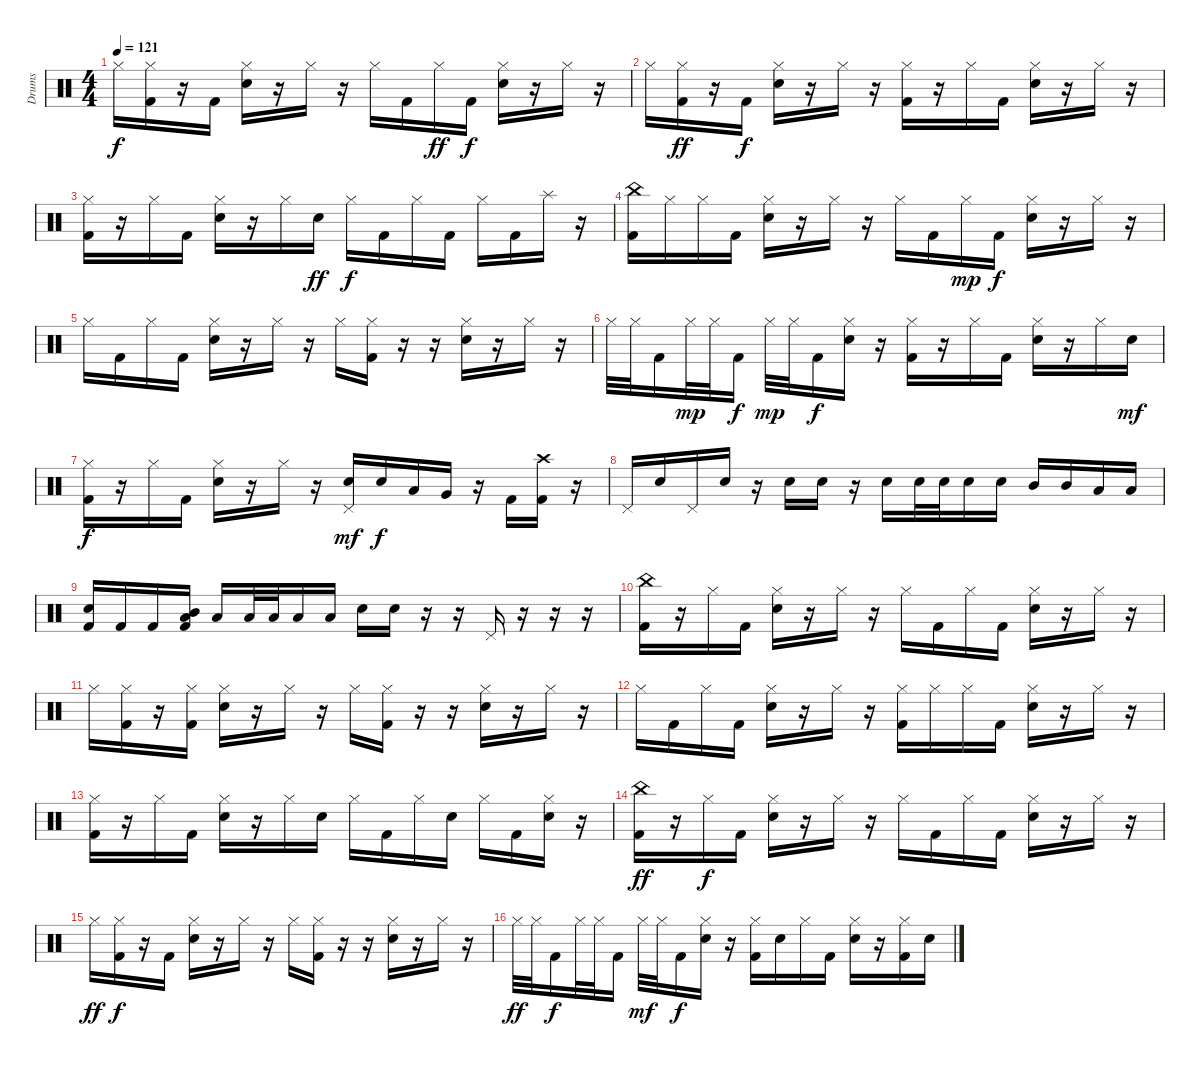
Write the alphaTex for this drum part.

\track ("Drums" "Drums") {instrument percussion}
\staff {score}
\articulation defaults
\ts (4 4)
\tempo 121
\clef neutral
\ks c "Hi-Hat (closed)".16{dy f}
("Hi-Hat (closed)" "Kick (hit) 2").16 r.16 "Kick (hit) 2".16 ("Hi-Hat (closed)" "Snare (hit) 2").16 r.16 "Hi-Hat (closed)".16 r.16 "Hi-Hat (closed)".16 "Kick (hit) 2".16 "Hi-Hat (closed)".16{dy ff} "Kick (hit) 2".16{dy f} ("Hi-Hat (closed)" "Snare (hit) 2").16 r.16 "Hi-Hat (closed)".16 r.16 |
"Hi-Hat (closed)".16 ("Hi-Hat (closed)" "Kick (hit) 2").16{dy ff} r.16 "Kick (hit) 2".16{dy f} ("Hi-Hat (closed)" "Snare (hit) 2").16 r.16 "Hi-Hat (closed)".16 r.16 ("Hi-Hat (closed)" "Kick (hit) 2").16 r.16 "Hi-Hat (closed)".16 "Kick (hit) 2".16 ("Hi-Hat (closed)" "Snare (hit) 2").16 r.16 "Hi-Hat (closed)".16 r.16 |
("Hi-Hat (closed)" "Kick (hit) 2").16 r.16 "Hi-Hat (closed)".16 "Kick (hit) 2".16 ("Hi-Hat (closed)" "Snare (hit) 2").16 r.16 "Hi-Hat (closed)".16 "Snare (hit) 2".16{dy ff} "Hi-Hat (closed)".16{dy f} "Kick (hit) 2".16 "Hi-Hat (closed)".16 "Kick (hit) 2".16 "Hi-Hat (closed)".16 "Kick (hit) 2".16 "Splash (hit)".16 r.16 |
("China (hit)" "Kick (hit) 2").16 "Hi-Hat (closed)".16 "Hi-Hat (closed)".16 "Kick (hit) 2".16 ("Hi-Hat (closed)" "Snare (hit) 2").16 r.16 "Hi-Hat (closed)".16 r.16 "Hi-Hat (closed)".16 "Kick (hit) 2".16 "Hi-Hat (closed)".16{dy mp} "Kick (hit) 2".16{dy f} ("Hi-Hat (closed)" "Snare (hit) 2").16 r.16 "Hi-Hat (closed)".16 r.16 |
"Hi-Hat (closed)".16 "Kick (hit) 2".16 "Hi-Hat (closed)".16 "Kick (hit) 2".16 ("Hi-Hat (closed)" "Snare (hit) 2").16 r.16 "Hi-Hat (closed)".16 r.16 "Hi-Hat (closed)".16 ("Hi-Hat (closed)" "Kick (hit) 2").16 r.16 r.16 ("Hi-Hat (closed)" "Snare (hit) 2").16 r.16 "Hi-Hat (closed)".16 r.16 |
"Hi-Hat (closed)".32 "Hi-Hat (closed)".32 "Kick (hit) 2".16 "Hi-Hat (closed)".32{dy mp} "Hi-Hat (closed)".32 "Kick (hit) 2".16{dy f} "Hi-Hat (closed)".32{dy mp} "Hi-Hat (closed)".32 "Kick (hit) 2".16{dy f} ("Hi-Hat (closed)" "Snare (hit) 2").16 r.16 ("Hi-Hat (closed)" "Kick (hit) 2").16 r.16 "Hi-Hat (closed)".16 "Kick (hit) 2".16 ("Hi-Hat (closed)" "Snare (hit) 2").16 r.16 "Hi-Hat (closed)".16 "Snare (hit) 2".16{dy mf} |
("Hi-Hat (closed)" "Kick (hit) 2").16{dy f} r.16 "Hi-Hat (closed)".16 "Kick (hit) 2".16 ("Hi-Hat (closed)" "Snare (hit) 2").16 r.16 "Hi-Hat (closed)".16 r.16 ("Pedal Hi-Hat (hit)" "Snare (hit) 2").16{dy mf} "Snare (hit) 2".16{dy f} "Low Tom (hit)".16 "Very Low Tom (hit)".16 r.16 "Kick (hit) 2".16 ("Crash high (hit)" "Kick (hit) 2").16 r.16 |
"Pedal Hi-Hat (hit)".16 "Snare (hit) 2".16 "Pedal Hi-Hat (hit)".16 "Snare (hit) 2".16 r.16 "Snare (hit) 2".16 "Snare (hit) 2".16 r.16 "Snare (hit) 2".16 "Snare (hit) 2".32 "Snare (hit) 2".32 "Snare (hit) 2".16 "Snare (hit) 2".16 "Mid Tom (hit)".16 "Mid Tom (hit)".16 "Low Tom (hit)".16 "Low Tom (hit)".16 |
("Snare (hit) 2" "Kick (hit) 2").16 "Kick (hit) 2".16 "Kick (hit) 2".16 ("Low Tom (hit)" "Mid Tom (hit)" "Kick (hit) 2").16 "Low Tom (hit)".16 "Low Tom (hit)".32 "Low Tom (hit)".32 "Low Tom (hit)".16 "Low Tom (hit)".16 "Snare (hit) 2".16 "Snare (hit) 2".16 r.16 r.16 "Pedal Hi-Hat (hit)".16 r.16 r.16 r.16 |
("China (hit)" "Kick (hit) 2").16 r.16 "Hi-Hat (closed)".16 "Kick (hit) 2".16 ("Hi-Hat (closed)" "Snare (hit) 2").16 r.16 "Hi-Hat (closed)".16 r.16 "Hi-Hat (closed)".16 "Kick (hit) 2".16 "Hi-Hat (closed)".16 "Kick (hit) 2".16 ("Hi-Hat (closed)" "Snare (hit) 2").16 r.16 "Hi-Hat (closed)".16 r.16 |
"Hi-Hat (closed)".16 ("Hi-Hat (closed)" "Kick (hit) 2").16 r.16 ("Hi-Hat (closed)" "Kick (hit) 2").16 ("Hi-Hat (closed)" "Snare (hit) 2").16 r.16 "Hi-Hat (closed)".16 r.16 "Hi-Hat (closed)".16 ("Hi-Hat (closed)" "Kick (hit) 2").16 r.16 r.16 ("Hi-Hat (closed)" "Snare (hit) 2").16 r.16 "Hi-Hat (closed)".16 r.16 |
"Hi-Hat (closed)".16 "Kick (hit) 2".16 "Hi-Hat (closed)".16 "Kick (hit) 2".16 ("Hi-Hat (closed)" "Snare (hit) 2").16 r.16 "Hi-Hat (closed)".16 r.16 ("Hi-Hat (closed)" "Kick (hit) 2").16 "Hi-Hat (closed)".16 "Hi-Hat (closed)".16 "Kick (hit) 2".16 ("Hi-Hat (closed)" "Snare (hit) 2").16 r.16 "Hi-Hat (closed)".16 r.16 |
("Hi-Hat (closed)" "Kick (hit) 2").16 r.16 "Hi-Hat (closed)".16 "Kick (hit) 2".16 ("Hi-Hat (closed)" "Snare (hit) 2").16 r.16 "Hi-Hat (closed)".16 "Snare (hit) 2".16 "Hi-Hat (closed)".16 "Kick (hit) 2".16 "Hi-Hat (closed)".16 "Snare (hit) 2".16 "Hi-Hat (closed)".16 "Kick (hit) 2".16 ("Hi-Hat (closed)" "Snare (hit) 2").16 r.16 |
("China (hit)" "Kick (hit) 2").16{dy ff} r.16 "Hi-Hat (closed)".16{dy f} "Kick (hit) 2".16 ("Hi-Hat (closed)" "Snare (hit) 2").16 r.16 "Hi-Hat (closed)".16 r.16 "Hi-Hat (closed)".16 "Kick (hit) 2".16 "Hi-Hat (closed)".16 "Kick (hit) 2".16 ("Hi-Hat (closed)" "Snare (hit) 2").16 r.16 "Hi-Hat (closed)".16 r.16 |
"Hi-Hat (closed)".16{dy ff} ("Hi-Hat (closed)" "Kick (hit) 2").16{dy f} r.16 "Kick (hit) 2".16 ("Hi-Hat (closed)" "Snare (hit) 2").16 r.16 "Hi-Hat (closed)".16 r.16 "Hi-Hat (closed)".16 ("Hi-Hat (closed)" "Kick (hit) 2").16 r.16 r.16 ("Hi-Hat (closed)" "Snare (hit) 2").16 r.16 "Hi-Hat (closed)".16 r.16 |
"Hi-Hat (closed)".32{dy ff} "Hi-Hat (closed)".32 "Kick (hit) 2".16{dy f} "Hi-Hat (closed)".32 "Hi-Hat (closed)".32 "Kick (hit) 2".16 "Hi-Hat (closed)".32{dy mf} "Hi-Hat (closed)".32 "Kick (hit) 2".16{dy f} ("Hi-Hat (closed)" "Snare (hit) 2").16 r.16 ("Hi-Hat (closed)" "Kick (hit) 2").16 "Snare (hit) 2".16 "Hi-Hat (closed)".16 "Kick (hit) 2".16 ("Hi-Hat (closed)" "Snare (hit) 2").16 r.16 ("Hi-Hat (closed)" "Kick (hit) 2").16 "Snare (hit) 2".16
